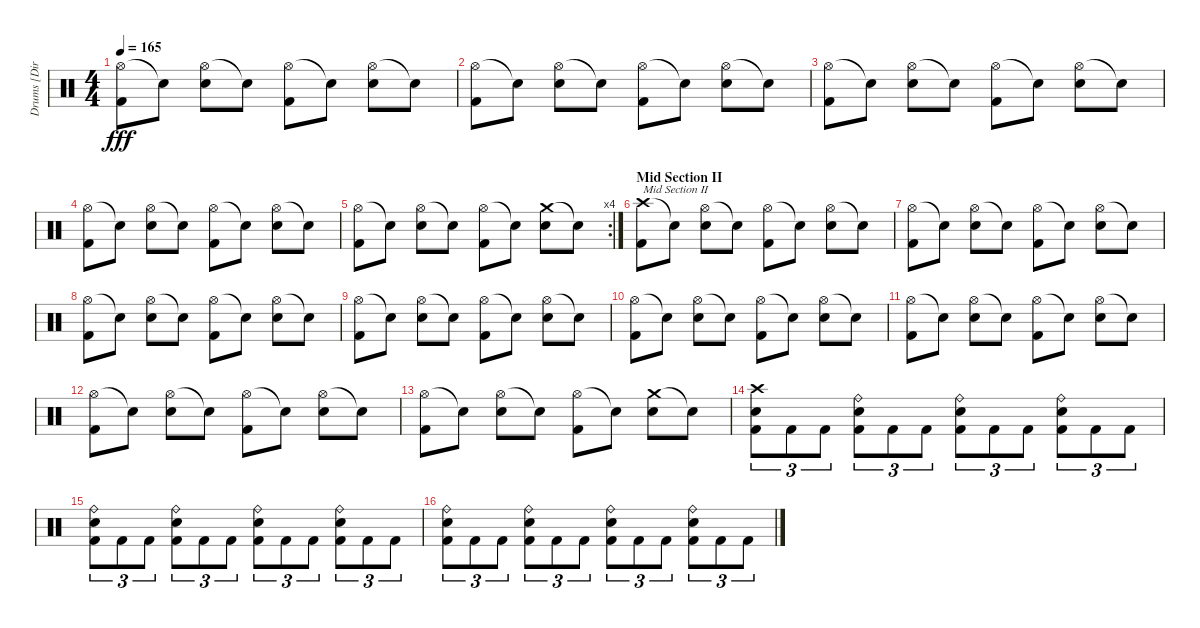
\track ("Drums [Dirge Rep]" "Drums [Dir") {instrument percussion}
\staff {score}
\articulation defaults
\ts (4 4)
\tempo 165
\clef neutral
\ks c
("Hi-Hat (open)" "Kick (hit) 2").8{dy fff} "Snare (hit)"{t}.8 ("Hi-Hat (open)" "Electric Snare (hit)").8 "Snare (hit)"{t}.8 ("Hi-Hat (open)" "Kick (hit) 2").8 "Snare (hit)"{t}.8 ("Hi-Hat (open)" "Electric Snare (hit)").8 "Snare (hit)"{t}.8 |
("Hi-Hat (open)" "Kick (hit) 2").8 "Snare (hit)"{t}.8 ("Hi-Hat (open)" "Electric Snare (hit)").8 "Snare (hit)"{t}.8 ("Hi-Hat (open)" "Kick (hit) 2").8 "Snare (hit)"{t}.8 ("Hi-Hat (open)" "Electric Snare (hit)").8 "Snare (hit)"{t}.8 |
("Hi-Hat (open)" "Kick (hit) 2").8 "Snare (hit)"{t}.8 ("Hi-Hat (open)" "Electric Snare (hit)").8 "Snare (hit)"{t}.8 ("Hi-Hat (open)" "Kick (hit) 2").8 "Snare (hit)"{t}.8 ("Hi-Hat (open)" "Electric Snare (hit)").8 "Snare (hit)"{t}.8 |
("Hi-Hat (open)" "Kick (hit) 2").8 "Snare (hit)"{t}.8 ("Hi-Hat (open)" "Electric Snare (hit)").8 "Snare (hit)"{t}.8 ("Hi-Hat (open)" "Kick (hit) 2").8 "Snare (hit)"{t}.8 ("Hi-Hat (open)" "Electric Snare (hit)").8 "Snare (hit)"{t}.8 |
\rc 4
("Hi-Hat (open)" "Kick (hit) 2").8 "Snare (hit)"{t}.8 ("Hi-Hat (open)" "Electric Snare (hit)").8 "Snare (hit)"{t}.8 ("Hi-Hat (open)" "Kick (hit) 2").8 "Snare (hit)"{t}.8 ("Crash medium (hit)" "Electric Snare (hit)").8 "Snare (hit)"{t}.8 |
\section ("" "Mid Section II")
("Crash high (hit)" "Kick (hit) 2").8{txt "Mid Section II"} "Snare (hit)"{t}.8 ("Hi-Hat (open)" "Electric Snare (hit)").8 "Snare (hit)"{t}.8 ("Hi-Hat (open)" "Kick (hit) 2").8 "Snare (hit)"{t}.8 ("Hi-Hat (open)" "Electric Snare (hit)").8 "Snare (hit)"{t}.8 |
("Hi-Hat (open)" "Kick (hit) 2").8 "Snare (hit)"{t}.8 ("Hi-Hat (open)" "Electric Snare (hit)").8 "Snare (hit)"{t}.8 ("Hi-Hat (open)" "Kick (hit) 2").8 "Snare (hit)"{t}.8 ("Hi-Hat (open)" "Electric Snare (hit)").8 "Snare (hit)"{t}.8 |
("Hi-Hat (open)" "Kick (hit) 2").8 "Snare (hit)"{t}.8 ("Hi-Hat (open)" "Electric Snare (hit)").8 "Snare (hit)"{t}.8 ("Hi-Hat (open)" "Kick (hit) 2").8 "Snare (hit)"{t}.8 ("Hi-Hat (open)" "Electric Snare (hit)").8 "Snare (hit)"{t}.8 |
("Hi-Hat (open)" "Kick (hit) 2").8 "Snare (hit)"{t}.8 ("Hi-Hat (open)" "Electric Snare (hit)").8 "Snare (hit)"{t}.8 ("Hi-Hat (open)" "Kick (hit) 2").8 "Snare (hit)"{t}.8 ("Hi-Hat (open)" "Electric Snare (hit)").8 "Snare (hit)"{t}.8 |
("Hi-Hat (open)" "Kick (hit) 2").8 "Snare (hit)"{t}.8 ("Hi-Hat (open)" "Electric Snare (hit)").8 "Snare (hit)"{t}.8 ("Hi-Hat (open)" "Kick (hit) 2").8 "Snare (hit)"{t}.8 ("Hi-Hat (open)" "Electric Snare (hit)").8 "Snare (hit)"{t}.8 |
("Hi-Hat (open)" "Kick (hit) 2").8 "Snare (hit)"{t}.8 ("Hi-Hat (open)" "Electric Snare (hit)").8 "Snare (hit)"{t}.8 ("Hi-Hat (open)" "Kick (hit) 2").8 "Snare (hit)"{t}.8 ("Hi-Hat (open)" "Electric Snare (hit)").8 "Snare (hit)"{t}.8 |
("Hi-Hat (open)" "Kick (hit) 2").8 "Snare (hit)"{t}.8 ("Hi-Hat (open)" "Electric Snare (hit)").8 "Snare (hit)"{t}.8 ("Hi-Hat (open)" "Kick (hit) 2").8 "Snare (hit)"{t}.8 ("Hi-Hat (open)" "Electric Snare (hit)").8 "Snare (hit)"{t}.8 |
("Hi-Hat (open)" "Kick (hit) 2").8 "Snare (hit)"{t}.8 ("Hi-Hat (open)" "Electric Snare (hit)").8 "Snare (hit)"{t}.8 ("Hi-Hat (open)" "Kick (hit) 2").8 "Snare (hit)"{t}.8 ("Crash medium (hit)" "Electric Snare (hit)").8 "Snare (hit)"{t}.8 |
("Crash high (hit)" "Electric Snare (hit)" "Kick (hit) 2").8{tu (3 2)} "Kick (hit) 2".8{tu (3 2)} "Kick (hit) 2".8{tu (3 2)} ("Ride (bell)" "Electric Snare (hit)" "Kick (hit) 2").8{tu (3 2)} "Kick (hit) 2".8{tu (3 2)} "Kick (hit) 2".8{tu (3 2)} ("Ride (bell)" "Electric Snare (hit)" "Kick (hit) 2").8{tu (3 2)} "Kick (hit) 2".8{tu (3 2)} "Kick (hit) 2".8{tu (3 2)} ("Ride (bell)" "Electric Snare (hit)" "Kick (hit) 2").8{tu (3 2)} "Kick (hit) 2".8{tu (3 2)} "Kick (hit) 2".8{tu (3 2)} |
("Ride (bell)" "Electric Snare (hit)" "Kick (hit) 2").8{tu (3 2)} "Kick (hit) 2".8{tu (3 2)} "Kick (hit) 2".8{tu (3 2)} ("Ride (bell)" "Electric Snare (hit)" "Kick (hit) 2").8{tu (3 2)} "Kick (hit) 2".8{tu (3 2)} "Kick (hit) 2".8{tu (3 2)} ("Ride (bell)" "Electric Snare (hit)" "Kick (hit) 2").8{tu (3 2)} "Kick (hit) 2".8{tu (3 2)} "Kick (hit) 2".8{tu (3 2)} ("Ride (bell)" "Electric Snare (hit)" "Kick (hit) 2").8{tu (3 2)} "Kick (hit) 2".8{tu (3 2)} "Kick (hit) 2".8{tu (3 2)} |
("Ride (bell)" "Electric Snare (hit)" "Kick (hit) 2").8{tu (3 2)} "Kick (hit) 2".8{tu (3 2)} "Kick (hit) 2".8{tu (3 2)} ("Ride (bell)" "Electric Snare (hit)" "Kick (hit) 2").8{tu (3 2)} "Kick (hit) 2".8{tu (3 2)} "Kick (hit) 2".8{tu (3 2)} ("Ride (bell)" "Electric Snare (hit)" "Kick (hit) 2").8{tu (3 2)} "Kick (hit) 2".8{tu (3 2)} "Kick (hit) 2".8{tu (3 2)} ("Ride (bell)" "Electric Snare (hit)" "Kick (hit) 2").8{tu (3 2)} "Kick (hit) 2".8{tu (3 2)} "Kick (hit) 2".8{tu (3 2)}
